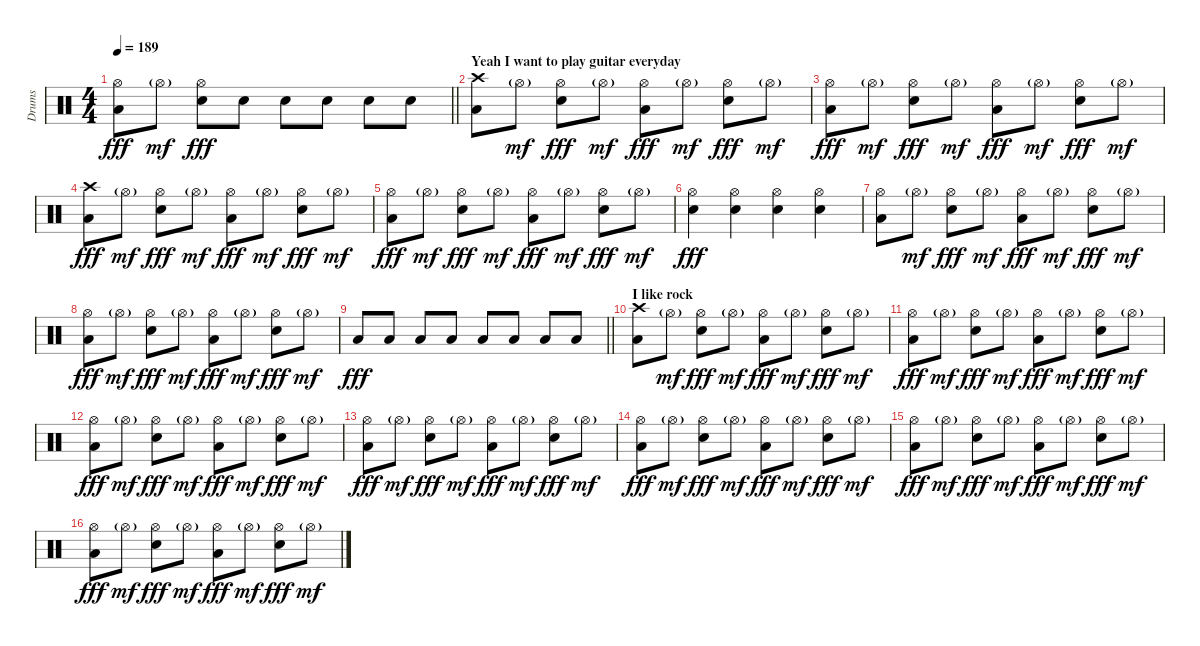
\track ("Drums" "Drums") {instrument percussion}
\staff {score}
\articulation defaults
\ts (4 4)
\tempo 189
\clef neutral
\barLineRight lightlight
\ks c
("Hi-Hat (open)" "Low Floor Tom (hit)").8{dy fff} "Hi-Hat (open)"{g}.8{dy mf} ("Hi-Hat (open)" "Snare (hit) 2").8{dy fff} "Snare (hit) 2".8 "Snare (hit) 2".8 "Snare (hit) 2".8 "Snare (hit) 2".8 "Snare (hit) 2".8 |
\section ("" "Yeah I want to play guitar everyday")
("Crash high (hit)" "Low Floor Tom (hit)").8 "Hi-Hat (open)"{g}.8{dy mf} ("Hi-Hat (open)" "Snare (hit) 2").8{dy fff} "Hi-Hat (open)"{g}.8{dy mf} ("Hi-Hat (open)" "Low Floor Tom (hit)").8{dy fff} "Hi-Hat (open)"{g}.8{dy mf} ("Hi-Hat (open)" "Snare (hit) 2").8{dy fff} "Hi-Hat (open)"{g}.8{dy mf} |
("Hi-Hat (open)" "Low Floor Tom (hit)").8{dy fff} "Hi-Hat (open)"{g}.8{dy mf} ("Hi-Hat (open)" "Snare (hit) 2").8{dy fff} "Hi-Hat (open)"{g}.8{dy mf} ("Hi-Hat (open)" "Low Floor Tom (hit)").8{dy fff} "Hi-Hat (open)"{g}.8{dy mf} ("Hi-Hat (open)" "Snare (hit) 2").8{dy fff} "Hi-Hat (open)"{g}.8{dy mf} |
("Crash high (hit)" "Low Floor Tom (hit)").8{dy fff} "Hi-Hat (open)"{g}.8{dy mf} ("Hi-Hat (open)" "Snare (hit) 2").8{dy fff} "Hi-Hat (open)"{g}.8{dy mf} ("Hi-Hat (open)" "Low Floor Tom (hit)").8{dy fff} "Hi-Hat (open)"{g}.8{dy mf} ("Hi-Hat (open)" "Snare (hit) 2").8{dy fff} "Hi-Hat (open)"{g}.8{dy mf} |
("Hi-Hat (open)" "Low Floor Tom (hit)").8{dy fff} "Hi-Hat (open)"{g}.8{dy mf} ("Hi-Hat (open)" "Snare (hit) 2").8{dy fff} "Hi-Hat (open)"{g}.8{dy mf} ("Hi-Hat (open)" "Low Floor Tom (hit)").8{dy fff} "Hi-Hat (open)"{g}.8{dy mf} ("Hi-Hat (open)" "Snare (hit) 2").8{dy fff} "Hi-Hat (open)"{g}.8{dy mf} |
("Hi-Hat (open)" "Snare (hit) 2").4{dy fff} ("Hi-Hat (open)" "Snare (hit) 2").4 ("Hi-Hat (open)" "Snare (hit) 2").4 ("Hi-Hat (open)" "Snare (hit) 2").4 |
("Hi-Hat (open)" "Low Floor Tom (hit)").8 "Hi-Hat (open)"{g}.8{dy mf} ("Hi-Hat (open)" "Snare (hit) 2").8{dy fff} "Hi-Hat (open)"{g}.8{dy mf} ("Hi-Hat (open)" "Low Floor Tom (hit)").8{dy fff} "Hi-Hat (open)"{g}.8{dy mf} ("Hi-Hat (open)" "Snare (hit) 2").8{dy fff} "Hi-Hat (open)"{g}.8{dy mf} |
("Hi-Hat (open)" "Low Floor Tom (hit)").8{dy fff} "Hi-Hat (open)"{g}.8{dy mf} ("Hi-Hat (open)" "Snare (hit) 2").8{dy fff} "Hi-Hat (open)"{g}.8{dy mf} ("Hi-Hat (open)" "Low Floor Tom (hit)").8{dy fff} "Hi-Hat (open)"{g}.8{dy mf} ("Hi-Hat (open)" "Snare (hit) 2").8{dy fff} "Hi-Hat (open)"{g}.8{dy mf} |
\barLineRight lightlight "Low Floor Tom (hit)".8{dy fff} "Low Floor Tom (hit)".8 "Low Floor Tom (hit)".8 "Low Floor Tom (hit)".8 "Low Floor Tom (hit)".8 "Low Floor Tom (hit)".8 "Low Floor Tom (hit)".8 "Low Floor Tom (hit)".8
|
\section ("" "I like rock")
("Crash high (hit)" "Low Floor Tom (hit)").8 "Hi-Hat (open)"{g}.8{dy mf} ("Hi-Hat (open)" "Snare (hit) 2").8{dy fff} "Hi-Hat (open)"{g}.8{dy mf} ("Hi-Hat (open)" "Low Floor Tom (hit)").8{dy fff} "Hi-Hat (open)"{g}.8{dy mf} ("Hi-Hat (open)" "Snare (hit) 2").8{dy fff} "Hi-Hat (open)"{g}.8{dy mf} |
("Hi-Hat (open)" "Low Floor Tom (hit)").8{dy fff} "Hi-Hat (open)"{g}.8{dy mf} ("Hi-Hat (open)" "Snare (hit) 2").8{dy fff} "Hi-Hat (open)"{g}.8{dy mf} ("Hi-Hat (open)" "Low Floor Tom (hit)").8{dy fff} "Hi-Hat (open)"{g}.8{dy mf} ("Hi-Hat (open)" "Snare (hit) 2").8{dy fff} "Hi-Hat (open)"{g}.8{dy mf} |
("Hi-Hat (open)" "Low Floor Tom (hit)").8{dy fff} "Hi-Hat (open)"{g}.8{dy mf} ("Hi-Hat (open)" "Snare (hit) 2").8{dy fff} "Hi-Hat (open)"{g}.8{dy mf} ("Hi-Hat (open)" "Low Floor Tom (hit)").8{dy fff} "Hi-Hat (open)"{g}.8{dy mf} ("Hi-Hat (open)" "Snare (hit) 2").8{dy fff} "Hi-Hat (open)"{g}.8{dy mf} |
("Hi-Hat (open)" "Low Floor Tom (hit)").8{dy fff} "Hi-Hat (open)"{g}.8{dy mf} ("Hi-Hat (open)" "Snare (hit) 2").8{dy fff} "Hi-Hat (open)"{g}.8{dy mf} ("Hi-Hat (open)" "Low Floor Tom (hit)").8{dy fff} "Hi-Hat (open)"{g}.8{dy mf} ("Hi-Hat (open)" "Snare (hit) 2").8{dy fff} "Hi-Hat (open)"{g}.8{dy mf} |
("Hi-Hat (open)" "Low Floor Tom (hit)").8{dy fff} "Hi-Hat (open)"{g}.8{dy mf} ("Hi-Hat (open)" "Snare (hit) 2").8{dy fff} "Hi-Hat (open)"{g}.8{dy mf} ("Hi-Hat (open)" "Low Floor Tom (hit)").8{dy fff} "Hi-Hat (open)"{g}.8{dy mf} ("Hi-Hat (open)" "Snare (hit) 2").8{dy fff} "Hi-Hat (open)"{g}.8{dy mf} |
("Hi-Hat (open)" "Low Floor Tom (hit)").8{dy fff} "Hi-Hat (open)"{g}.8{dy mf} ("Hi-Hat (open)" "Snare (hit) 2").8{dy fff} "Hi-Hat (open)"{g}.8{dy mf} ("Hi-Hat (open)" "Low Floor Tom (hit)").8{dy fff} "Hi-Hat (open)"{g}.8{dy mf} ("Hi-Hat (open)" "Snare (hit) 2").8{dy fff} "Hi-Hat (open)"{g}.8{dy mf} |
("Hi-Hat (open)" "Low Floor Tom (hit)").8{dy fff} "Hi-Hat (open)"{g}.8{dy mf} ("Hi-Hat (open)" "Snare (hit) 2").8{dy fff} "Hi-Hat (open)"{g}.8{dy mf} ("Hi-Hat (open)" "Low Floor Tom (hit)").8{dy fff} "Hi-Hat (open)"{g}.8{dy mf} ("Hi-Hat (open)" "Snare (hit) 2").8{dy fff} "Hi-Hat (open)"{g}.8{dy mf}
